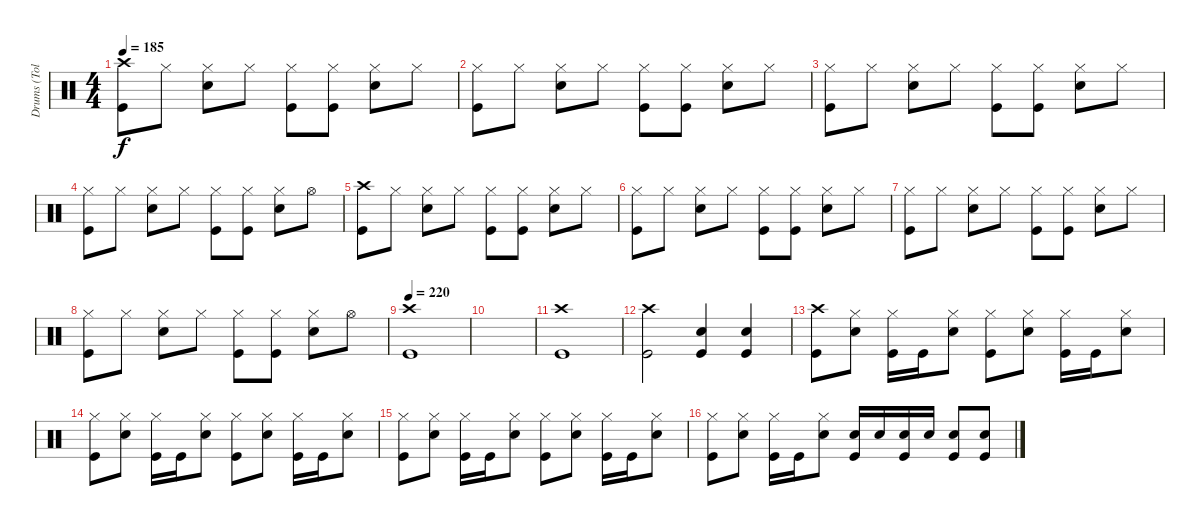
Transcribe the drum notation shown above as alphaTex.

\track ("Drums (Tolik)" "Drums (Tol") {instrument percussion}
\staff {score}
\articulation defaults
\ts (4 4)
\tempo 185
\clef neutral
\ks c
("Crash high (hit)" "Kick (hit)").8{dy f} "Hi-Hat (closed)".8 ("Hi-Hat (closed)" "Electric Snare (hit)").8 "Hi-Hat (closed)".8 ("Hi-Hat (closed)" "Kick (hit)").8 ("Hi-Hat (closed)" "Kick (hit)").8 ("Hi-Hat (closed)" "Electric Snare (hit)").8 "Hi-Hat (closed)".8 |
("Hi-Hat (closed)" "Kick (hit)").8 "Hi-Hat (closed)".8 ("Hi-Hat (closed)" "Electric Snare (hit)").8 "Hi-Hat (closed)".8 ("Hi-Hat (closed)" "Kick (hit)").8 ("Hi-Hat (closed)" "Kick (hit)").8 ("Hi-Hat (closed)" "Electric Snare (hit)").8 "Hi-Hat (closed)".8 |
("Hi-Hat (closed)" "Kick (hit)").8 "Hi-Hat (closed)".8 ("Hi-Hat (closed)" "Electric Snare (hit)").8 "Hi-Hat (closed)".8 ("Hi-Hat (closed)" "Kick (hit)").8 ("Hi-Hat (closed)" "Kick (hit)").8 ("Hi-Hat (closed)" "Electric Snare (hit)").8 "Hi-Hat (closed)".8 |
("Hi-Hat (closed)" "Kick (hit)").8 "Hi-Hat (closed)".8 ("Hi-Hat (closed)" "Electric Snare (hit)").8 "Hi-Hat (closed)".8 ("Hi-Hat (closed)" "Kick (hit)").8 ("Hi-Hat (closed)" "Kick (hit)").8 ("Hi-Hat (closed)" "Electric Snare (hit)").8 "Hi-Hat (open)".8 |
("Crash high (hit)" "Kick (hit)").8 "Hi-Hat (closed)".8 ("Hi-Hat (closed)" "Electric Snare (hit)").8 "Hi-Hat (closed)".8 ("Hi-Hat (closed)" "Kick (hit)").8 ("Hi-Hat (closed)" "Kick (hit)").8 ("Hi-Hat (closed)" "Electric Snare (hit)").8 "Hi-Hat (closed)".8 |
("Hi-Hat (closed)" "Kick (hit)").8 "Hi-Hat (closed)".8 ("Hi-Hat (closed)" "Electric Snare (hit)").8 "Hi-Hat (closed)".8 ("Hi-Hat (closed)" "Kick (hit)").8 ("Hi-Hat (closed)" "Kick (hit)").8 ("Hi-Hat (closed)" "Electric Snare (hit)").8 "Hi-Hat (closed)".8 |
("Hi-Hat (closed)" "Kick (hit)").8 "Hi-Hat (closed)".8 ("Hi-Hat (closed)" "Electric Snare (hit)").8 "Hi-Hat (closed)".8 ("Hi-Hat (closed)" "Kick (hit)").8 ("Hi-Hat (closed)" "Kick (hit)").8 ("Hi-Hat (closed)" "Electric Snare (hit)").8 "Hi-Hat (closed)".8 |
("Hi-Hat (closed)" "Kick (hit)").8 "Hi-Hat (closed)".8 ("Hi-Hat (closed)" "Electric Snare (hit)").8 "Hi-Hat (closed)".8 ("Hi-Hat (closed)" "Kick (hit)").8 ("Hi-Hat (closed)" "Kick (hit)").8 ("Hi-Hat (closed)" "Electric Snare (hit)").8 "Hi-Hat (open)".8 |
\tempo 220
("Crash high (hit)" "Kick (hit)").1 |
|
("Crash high (hit)" "Kick (hit)").1 |
("Crash high (hit)" "Kick (hit)").2 ("Electric Snare (hit)" "Kick (hit)").4 ("Electric Snare (hit)" "Kick (hit)").4 |
("Crash high (hit)" "Kick (hit)").8 ("Hi-Hat (closed)" "Electric Snare (hit)").8 ("Hi-Hat (closed)" "Kick (hit)").16 "Kick (hit)".16 ("Hi-Hat (closed)" "Electric Snare (hit)").8 ("Hi-Hat (closed)" "Kick (hit)").8 ("Hi-Hat (closed)" "Electric Snare (hit)").8 ("Hi-Hat (closed)" "Kick (hit)").16 "Kick (hit)".16 ("Hi-Hat (closed)" "Electric Snare (hit)").8 |
("Hi-Hat (closed)" "Kick (hit)").8 ("Hi-Hat (closed)" "Electric Snare (hit)").8 ("Hi-Hat (closed)" "Kick (hit)").16 "Kick (hit)".16 ("Hi-Hat (closed)" "Electric Snare (hit)").8 ("Hi-Hat (closed)" "Kick (hit)").8 ("Hi-Hat (closed)" "Electric Snare (hit)").8 ("Hi-Hat (closed)" "Kick (hit)").16 "Kick (hit)".16 ("Hi-Hat (closed)" "Electric Snare (hit)").8 |
("Hi-Hat (closed)" "Kick (hit)").8 ("Hi-Hat (closed)" "Electric Snare (hit)").8 ("Hi-Hat (closed)" "Kick (hit)").16 "Kick (hit)".16 ("Hi-Hat (closed)" "Electric Snare (hit)").8 ("Hi-Hat (closed)" "Kick (hit)").8 ("Hi-Hat (closed)" "Electric Snare (hit)").8 ("Hi-Hat (closed)" "Kick (hit)").16 "Kick (hit)".16 ("Hi-Hat (closed)" "Electric Snare (hit)").8 |
("Hi-Hat (closed)" "Kick (hit)").8 ("Hi-Hat (closed)" "Electric Snare (hit)").8 ("Hi-Hat (closed)" "Kick (hit)").16 "Kick (hit)".16 ("Hi-Hat (closed)" "Electric Snare (hit)").8 ("Kick (hit)" "Electric Snare (hit)").16 "Electric Snare (hit)".16 ("Kick (hit)" "Electric Snare (hit)").16 "Electric Snare (hit)".16 ("Kick (hit)" "Electric Snare (hit)").8 ("Kick (hit)" "Electric Snare (hit)").8
